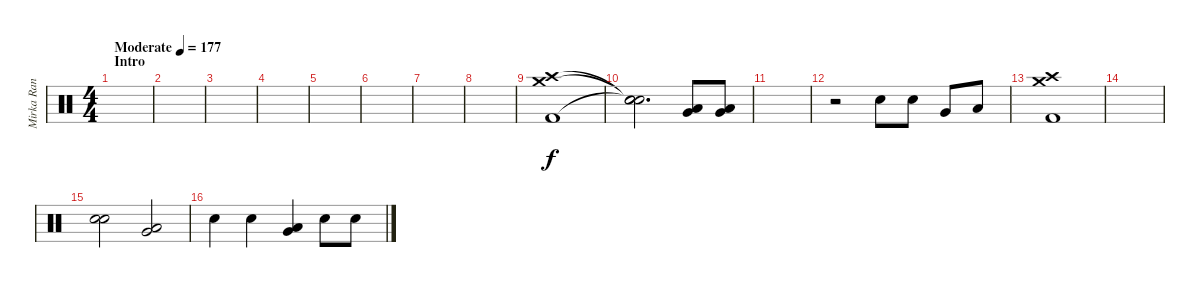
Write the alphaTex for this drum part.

\track (" Mirka Rantanen" " Mirka Ran") {instrument percussion}
\staff {score}
\articulation defaults
\ts (4 4)
\section ("" "Intro")
\tempo (177 "Moderate")
\clef neutral
\ks c
|
|
|
|
|
|
|
|
("Crash high (hit)" "Crash medium (hit)" "Kick (hit) 2").1 |
("Snare (hit)"{t} "Snare (hit)"{t} "Snare (hit)"{t}).2{d} ("Very Low Tom (hit)" "Low Floor Tom (hit)").8 ("Very Low Tom (hit)" "Low Floor Tom (hit)").8 |
|
r.2 "Electric Snare (hit)".8 "Electric Snare (hit)".8 "Very Low Tom (hit)".8 "Low Floor Tom (hit)".8 |
("Crash high (hit)" "Crash medium (hit)" "Kick (hit) 2").1 |
|
("Electric Snare (hit)" "Electric Snare (hit)").2 ("Very Low Tom (hit)" "Low Floor Tom (hit)").2 |
"Electric Snare (hit)".4 "Electric Snare (hit)".4 ("Very Low Tom (hit)" "Low Floor Tom (hit)").4 "Electric Snare (hit)".8 "Electric Snare (hit)".8
